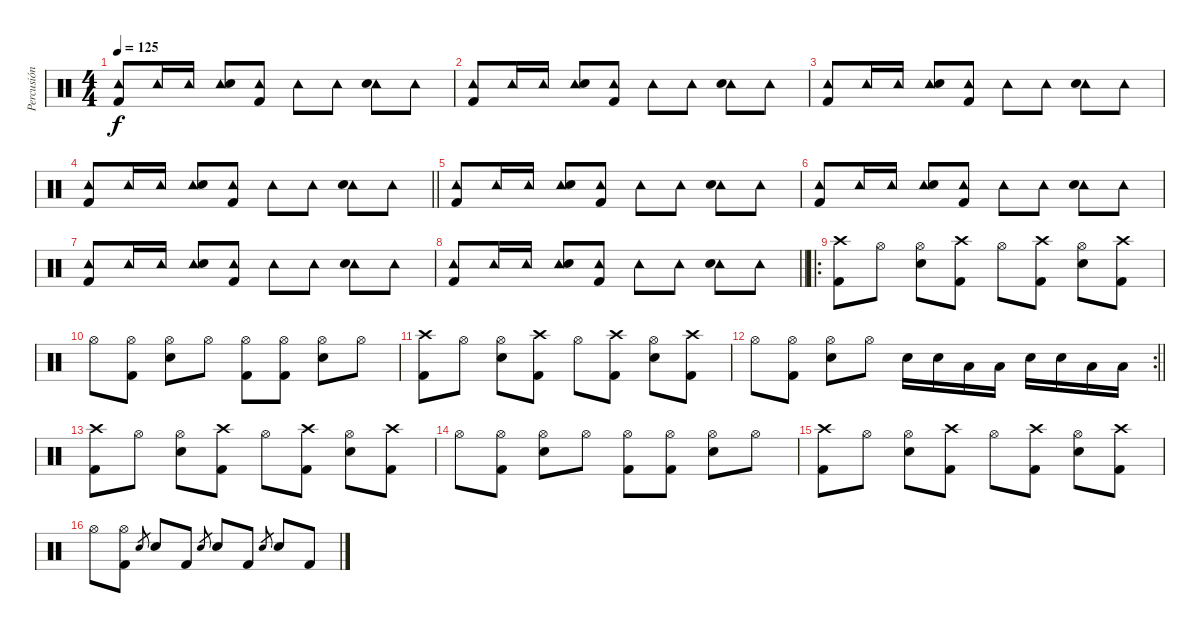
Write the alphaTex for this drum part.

\track ("Percusión" "Percusión") {instrument percussion}
\staff {score}
\articulation defaults
\ts (4 4)
\tempo 125
\clef neutral
\ks c
("Tambourine (hit)" "Kick (hit) 2").8{dy f} "Tambourine (hit)".16 "Tambourine (hit)".16 ("Tambourine (hit)" "Electric Snare (hit)").8 ("Tambourine (hit)" "Kick (hit) 2").8 "Tambourine (hit)".8 "Tambourine (hit)".8 ("Tambourine (hit)" "Electric Snare (hit)").8 "Tambourine (hit)".8 |
("Tambourine (hit)" "Kick (hit) 2").8 "Tambourine (hit)".16 "Tambourine (hit)".16 ("Tambourine (hit)" "Electric Snare (hit)").8 ("Tambourine (hit)" "Kick (hit) 2").8 "Tambourine (hit)".8 "Tambourine (hit)".8 ("Tambourine (hit)" "Electric Snare (hit)").8 "Tambourine (hit)".8 |
("Tambourine (hit)" "Kick (hit) 2").8 "Tambourine (hit)".16 "Tambourine (hit)".16 ("Tambourine (hit)" "Electric Snare (hit)").8 ("Tambourine (hit)" "Kick (hit) 2").8 "Tambourine (hit)".8 "Tambourine (hit)".8 ("Tambourine (hit)" "Electric Snare (hit)").8 "Tambourine (hit)".8 |
\barLineRight lightlight
("Tambourine (hit)" "Kick (hit) 2").8 "Tambourine (hit)".16 "Tambourine (hit)".16 ("Tambourine (hit)" "Electric Snare (hit)").8 ("Tambourine (hit)" "Kick (hit) 2").8 "Tambourine (hit)".8 "Tambourine (hit)".8 ("Tambourine (hit)" "Electric Snare (hit)").8 "Tambourine (hit)".8 |
("Tambourine (hit)" "Kick (hit) 2").8 "Tambourine (hit)".16 "Tambourine (hit)".16 ("Tambourine (hit)" "Electric Snare (hit)").8 ("Tambourine (hit)" "Kick (hit) 2").8 "Tambourine (hit)".8 "Tambourine (hit)".8 ("Tambourine (hit)" "Electric Snare (hit)").8 "Tambourine (hit)".8 |
("Tambourine (hit)" "Kick (hit) 2").8 "Tambourine (hit)".16 "Tambourine (hit)".16 ("Tambourine (hit)" "Electric Snare (hit)").8 ("Tambourine (hit)" "Kick (hit) 2").8 "Tambourine (hit)".8 "Tambourine (hit)".8 ("Tambourine (hit)" "Electric Snare (hit)").8 "Tambourine (hit)".8 |
("Tambourine (hit)" "Kick (hit) 2").8 "Tambourine (hit)".16 "Tambourine (hit)".16 ("Tambourine (hit)" "Electric Snare (hit)").8 ("Tambourine (hit)" "Kick (hit) 2").8 "Tambourine (hit)".8 "Tambourine (hit)".8 ("Tambourine (hit)" "Electric Snare (hit)").8 "Tambourine (hit)".8 |
\barLineRight lightlight
("Tambourine (hit)" "Kick (hit) 2").8 "Tambourine (hit)".16 "Tambourine (hit)".16 ("Tambourine (hit)" "Electric Snare (hit)").8 ("Tambourine (hit)" "Kick (hit) 2").8 "Tambourine (hit)".8 "Tambourine (hit)".8 ("Tambourine (hit)" "Electric Snare (hit)").8 "Tambourine (hit)".8 |
\ro
("Crash high (hit)" "Kick (hit) 2").8 "Hi-Hat (open)".8 ("Hi-Hat (open)" "Electric Snare (hit)").8 ("Crash high (hit)" "Kick (hit) 2").8 "Hi-Hat (open)".8 ("Crash high (hit)" "Kick (hit) 2").8 ("Hi-Hat (open)" "Electric Snare (hit)").8 ("Crash high (hit)" "Kick (hit) 2").8 |
"Hi-Hat (open)".8 ("Hi-Hat (open)" "Kick (hit) 2").8 ("Hi-Hat (open)" "Electric Snare (hit)").8 "Hi-Hat (open)".8 ("Hi-Hat (open)" "Kick (hit) 2").8 ("Hi-Hat (open)" "Kick (hit) 2").8 ("Hi-Hat (open)" "Electric Snare (hit)").8 "Hi-Hat (open)".8 |
("Crash high (hit)" "Kick (hit) 2").8 "Hi-Hat (open)".8 ("Hi-Hat (open)" "Electric Snare (hit)").8 ("Crash high (hit)" "Kick (hit) 2").8 "Hi-Hat (open)".8 ("Crash high (hit)" "Kick (hit) 2").8 ("Hi-Hat (open)" "Electric Snare (hit)").8 ("Crash high (hit)" "Kick (hit) 2").8 |
\rc 2
\barLineRight lightlight "Hi-Hat (open)".8
("Hi-Hat (open)" "Kick (hit) 2").8 ("Hi-Hat (open)" "Electric Snare (hit)").8 "Hi-Hat (open)".8 "Electric Snare (hit)".16 "Electric Snare (hit)".16 "Low Tom (hit)".16 "Low Tom (hit)".16 "Electric Snare (hit)".16 "Electric Snare (hit)".16 "Low Tom (hit)".16 "Low Tom (hit)".16 |
("Crash high (hit)" "Kick (hit) 2").8 "Hi-Hat (open)".8 ("Hi-Hat (open)" "Electric Snare (hit)").8 ("Crash high (hit)" "Kick (hit) 2").8 "Hi-Hat (open)".8 ("Crash high (hit)" "Kick (hit) 2").8 ("Hi-Hat (open)" "Electric Snare (hit)").8 ("Crash high (hit)" "Kick (hit) 2").8 |
"Hi-Hat (open)".8 ("Hi-Hat (open)" "Kick (hit) 2").8 ("Hi-Hat (open)" "Electric Snare (hit)").8 "Hi-Hat (open)".8 ("Hi-Hat (open)" "Kick (hit) 2").8 ("Hi-Hat (open)" "Kick (hit) 2").8 ("Hi-Hat (open)" "Electric Snare (hit)").8 "Hi-Hat (open)".8 |
("Crash high (hit)" "Kick (hit) 2").8 "Hi-Hat (open)".8 ("Hi-Hat (open)" "Electric Snare (hit)").8 ("Crash high (hit)" "Kick (hit) 2").8 "Hi-Hat (open)".8 ("Crash high (hit)" "Kick (hit) 2").8 ("Hi-Hat (open)" "Electric Snare (hit)").8 ("Crash high (hit)" "Kick (hit) 2").8 |
"Hi-Hat (open)".8 ("Hi-Hat (open)" "Kick (hit) 2").8 "Electric Snare (hit)".8{gr} "Electric Snare (hit)".8 "Kick (hit) 2".8 "Electric Snare (hit)".8{gr} "Electric Snare (hit)".8 "Kick (hit) 2".8 "Electric Snare (hit)".8{gr} "Electric Snare (hit)".8 "Kick (hit) 2".8
